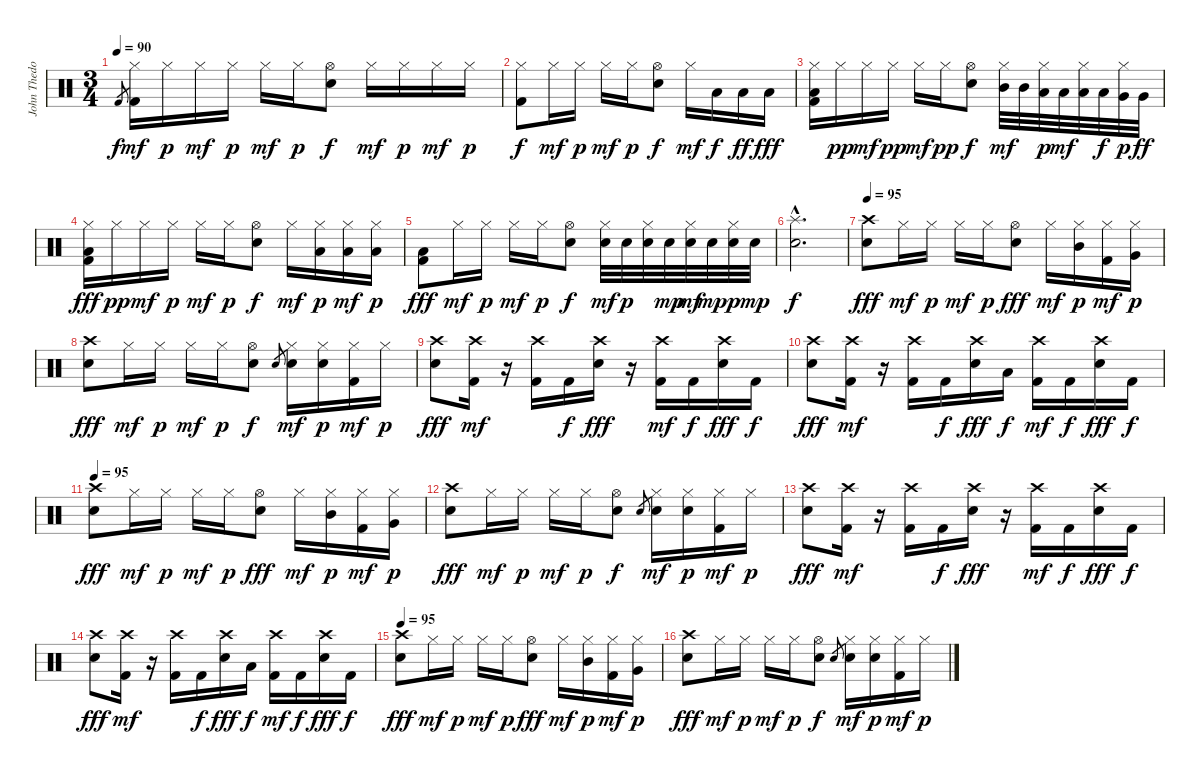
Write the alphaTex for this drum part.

\track ("John Thedore" "John Thedo") {instrument percussion}
\staff {score}
\articulation defaults
\ts (3 4)
\tempo 90
\clef neutral
\ks c "Kick (hit) 2".8{gr dy f}
("Kick (hit) 2" "Hi-Hat (closed)").16{dy mf} "Hi-Hat (closed)".16{dy p} "Hi-Hat (closed)".16{dy mf} "Hi-Hat (closed)".16{dy p} "Hi-Hat (closed)".16{dy mf} "Hi-Hat (closed)".16{dy p} ("Hi-Hat (open)" "Electric Snare (hit)").8{dy f} "Hi-Hat (closed)".16{dy mf} "Hi-Hat (closed)".16{dy p} "Hi-Hat (closed)".16{dy mf} "Hi-Hat (closed)".16{dy p} |
("Kick (hit) 2" "Hi-Hat (closed)").8{dy f} "Hi-Hat (closed)".16{dy mf} "Hi-Hat (closed)".16{dy p} "Hi-Hat (closed)".16{dy mf} "Hi-Hat (closed)".16{dy p} ("Hi-Hat (open)" "Electric Snare (hit)").8{dy f} "Hi-Hat (closed)".16{dy mf} "Low Tom (hit)".16{dy f} "Low Tom (hit)".16{dy ff} "Low Tom (hit)".16{dy fff} |
("Low Tom (hit)" "Kick (hit) 2" "Hi-Hat (closed)").16 "Hi-Hat (closed)".16{dy pp} "Hi-Hat (closed)".16{dy mf} "Hi-Hat (closed)".16{dy pp} "Hi-Hat (closed)".16{dy mf} "Hi-Hat (closed)".16{dy pp} ("Hi-Hat (open)" "Electric Snare (hit)").8{dy f} ("Mid Tom (hit)" "Hi-Hat (closed)").32{dy mf} "Mid Tom (hit)".32 ("Low Tom (hit)" "Hi-Hat (closed)").32{dy p} "Low Tom (hit)".32{dy mf} ("Low Tom (hit)" "Hi-Hat (closed)").32 "Low Tom (hit)".32{dy f} ("Very Low Tom (hit)" "Hi-Hat (closed)").32{dy p} "Very Low Tom (hit)".32{dy ff} |
("Low Tom (hit)" "Kick (hit) 2" "Hi-Hat (closed)").16{dy fff} "Hi-Hat (closed)".16{dy pp} "Hi-Hat (closed)".16{dy mf} "Hi-Hat (closed)".16{dy p} "Hi-Hat (closed)".16{dy mf} "Hi-Hat (closed)".16{dy p} ("Hi-Hat (open)" "Electric Snare (hit)").8{dy f} "Hi-Hat (closed)".16{dy mf} ("Low Tom (hit)" "Hi-Hat (closed)").16{dy p} ("Low Tom (hit)" "Hi-Hat (closed)").16{dy mf} ("Low Tom (hit)" "Hi-Hat (closed)").16{dy p} |
("Low Tom (hit)" "Kick (hit) 2").8{dy fff} "Hi-Hat (closed)".16{dy mf} "Hi-Hat (closed)".16{dy p} "Hi-Hat (closed)".16{dy mf} "Hi-Hat (closed)".16{dy p} ("Hi-Hat (open)" "Electric Snare (hit)").8{dy f} ("Electric Snare (hit)" "Hi-Hat (closed)").32{dy mf} "Electric Snare (hit)".32{dy p} ("Electric Snare (hit)" "Hi-Hat (closed)").32 "Electric Snare (hit)".32{dy mp} ("Electric Snare (hit)" "Hi-Hat (closed)").32{dy mf} "Electric Snare (hit)".32{dy mp} ("Electric Snare (hit)" "Hi-Hat (closed)").32{dy p} "Electric Snare (hit)".32{dy mp} |
("Electric Snare (hit)"{hac} "Splash (hit)"{hac}).2{d dy f} |
\tempo 95
("Crash high (hit)" "Electric Snare (hit)").8{dy fff} "Hi-Hat (closed)".16{dy mf} "Hi-Hat (closed)".16{dy p} "Hi-Hat (closed)".16{dy mf} "Hi-Hat (closed)".16{dy p} ("Hi-Hat (open)" "Electric Snare (hit)").8{dy fff} "Hi-Hat (closed)".16{dy mf} ("Hi-Hat (closed)" "Mid Tom (hit)").16{dy p} ("Hi-Hat (closed)" "Kick (hit) 2").16{dy mf} ("Hi-Hat (closed)" "Very Low Tom (hit)").16{dy p} |
("Crash high (hit)" "Electric Snare (hit)").8{dy fff} "Hi-Hat (closed)".16{dy mf} "Hi-Hat (closed)".16{dy p} "Hi-Hat (closed)".16{dy mf} "Hi-Hat (closed)".16{dy p} ("Hi-Hat (open)" "Electric Snare (hit)").8{dy f} "Electric Snare (hit)".8{gr} ("Hi-Hat (closed)" "Electric Snare (hit)").16{dy mf} ("Hi-Hat (closed)" "Electric Snare (hit)").16{dy p} ("Hi-Hat (closed)" "Kick (hit) 2").16{dy mf} "Hi-Hat (closed)".16{dy p} |
("Crash high (hit)" "Electric Snare (hit)").8{dy fff} ("Crash high (hit)" "Kick (hit) 2").16{dy mf} r.16 ("Crash high (hit)" "Kick (hit) 2").16 "Kick (hit) 2".16{dy f} ("Crash high (hit)" "Electric Snare (hit)").16{dy fff} r.16 ("Crash high (hit)" "Kick (hit) 2").16{dy mf} "Kick (hit) 2".16{dy f} ("Crash high (hit)" "Electric Snare (hit)").16{dy fff} "Kick (hit) 2".16{dy f} |
("Crash high (hit)" "Electric Snare (hit)").8{dy fff} ("Crash high (hit)" "Kick (hit) 2").16{dy mf} r.16 ("Crash high (hit)" "Kick (hit) 2").16 "Kick (hit) 2".16{dy f} ("Crash high (hit)" "Electric Snare (hit)").16{dy fff} "Low Tom (hit)".16{dy f} ("Crash high (hit)" "Kick (hit) 2").16{dy mf} "Kick (hit) 2".16{dy f} ("Crash high (hit)" "Electric Snare (hit)").16{dy fff} "Kick (hit) 2".16{dy f} |
\tempo 95
("Crash high (hit)" "Electric Snare (hit)").8{dy fff} "Hi-Hat (closed)".16{dy mf} "Hi-Hat (closed)".16{dy p} "Hi-Hat (closed)".16{dy mf} "Hi-Hat (closed)".16{dy p} ("Hi-Hat (open)" "Electric Snare (hit)").8{dy fff} "Hi-Hat (closed)".16{dy mf} ("Hi-Hat (closed)" "Mid Tom (hit)").16{dy p} ("Hi-Hat (closed)" "Kick (hit) 2").16{dy mf} ("Hi-Hat (closed)" "Very Low Tom (hit)").16{dy p} |
("Crash high (hit)" "Electric Snare (hit)").8{dy fff} "Hi-Hat (closed)".16{dy mf} "Hi-Hat (closed)".16{dy p} "Hi-Hat (closed)".16{dy mf} "Hi-Hat (closed)".16{dy p} ("Hi-Hat (open)" "Electric Snare (hit)").8{dy f} "Electric Snare (hit)".8{gr} ("Hi-Hat (closed)" "Electric Snare (hit)").16{dy mf} ("Hi-Hat (closed)" "Electric Snare (hit)").16{dy p} ("Hi-Hat (closed)" "Kick (hit) 2").16{dy mf} "Hi-Hat (closed)".16{dy p} |
("Crash high (hit)" "Electric Snare (hit)").8{dy fff} ("Crash high (hit)" "Kick (hit) 2").16{dy mf} r.16 ("Crash high (hit)" "Kick (hit) 2").16 "Kick (hit) 2".16{dy f} ("Crash high (hit)" "Electric Snare (hit)").16{dy fff} r.16 ("Crash high (hit)" "Kick (hit) 2").16{dy mf} "Kick (hit) 2".16{dy f} ("Crash high (hit)" "Electric Snare (hit)").16{dy fff} "Kick (hit) 2".16{dy f} |
("Crash high (hit)" "Electric Snare (hit)").8{dy fff} ("Crash high (hit)" "Kick (hit) 2").16{dy mf} r.16 ("Crash high (hit)" "Kick (hit) 2").16 "Kick (hit) 2".16{dy f} ("Crash high (hit)" "Electric Snare (hit)").16{dy fff} "Low Tom (hit)".16{dy f} ("Crash high (hit)" "Kick (hit) 2").16{dy mf} "Kick (hit) 2".16{dy f} ("Crash high (hit)" "Electric Snare (hit)").16{dy fff} "Kick (hit) 2".16{dy f} |
\tempo 95
("Crash high (hit)" "Electric Snare (hit)").8{dy fff} "Hi-Hat (closed)".16{dy mf} "Hi-Hat (closed)".16{dy p} "Hi-Hat (closed)".16{dy mf} "Hi-Hat (closed)".16{dy p} ("Hi-Hat (open)" "Electric Snare (hit)").8{dy fff} "Hi-Hat (closed)".16{dy mf} ("Hi-Hat (closed)" "Mid Tom (hit)").16{dy p} ("Hi-Hat (closed)" "Kick (hit) 2").16{dy mf} ("Hi-Hat (closed)" "Very Low Tom (hit)").16{dy p} |
("Crash high (hit)" "Electric Snare (hit)").8{dy fff} "Hi-Hat (closed)".16{dy mf} "Hi-Hat (closed)".16{dy p} "Hi-Hat (closed)".16{dy mf} "Hi-Hat (closed)".16{dy p} ("Hi-Hat (open)" "Electric Snare (hit)").8{dy f} "Electric Snare (hit)".8{gr} ("Hi-Hat (closed)" "Electric Snare (hit)").16{dy mf} ("Hi-Hat (closed)" "Electric Snare (hit)").16{dy p} ("Hi-Hat (closed)" "Kick (hit) 2").16{dy mf} "Hi-Hat (closed)".16{dy p}
